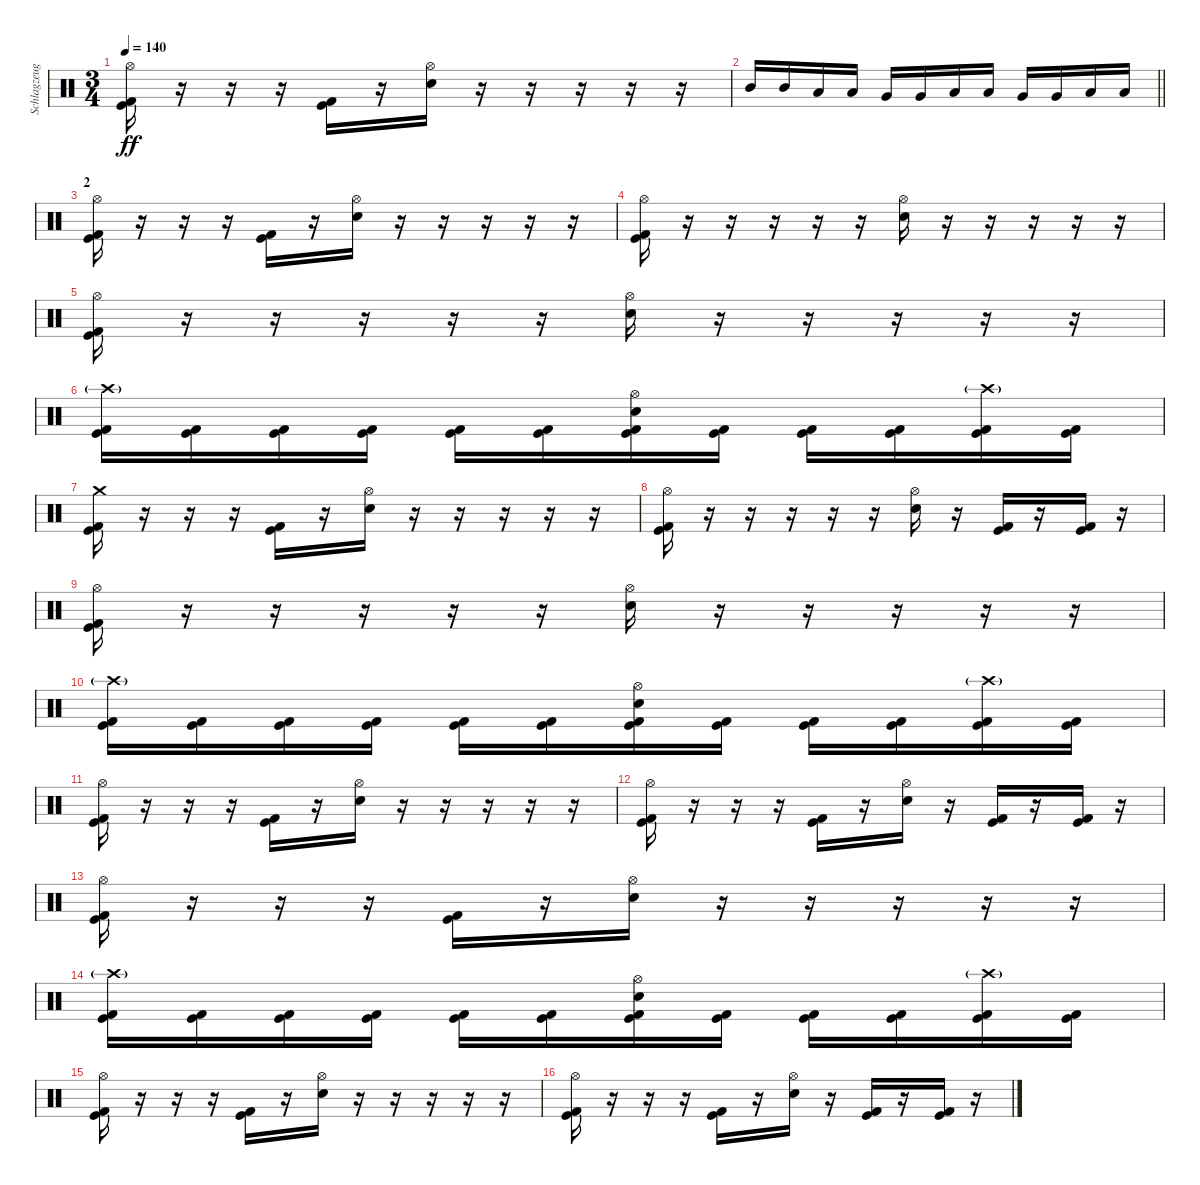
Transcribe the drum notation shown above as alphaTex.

\track ("Schlagzeug" "Schlagzeug") {instrument percussion}
\staff {score}
\articulation defaults
\ts (3 4)
\tempo 140
\clef neutral
\ks c
("Hi-Hat (open)" "Kick (hit)" "Kick (hit) 2").16{dy ff} r.16 r.16 r.16 ("Kick (hit)" "Kick (hit) 2").16 r.16 ("Hi-Hat (open)" "Electric Snare (hit)").16 r.16 r.16 r.16 r.16 r.16 |
\barLineRight lightlight "Mid Tom (hit)".16 "Mid Tom (hit)".16 "Low Tom (hit)".16 "Low Tom (hit)".16 "Very Low Tom (hit)".16 "Very Low Tom (hit)".16 "Low Tom (hit)".16 "Low Tom (hit)".16 "Very Low Tom (hit)".16 "Very Low Tom (hit)".16 "Low Floor Tom (hit)".16 "Low Floor Tom (hit)".16
|
\section ("" "2")
("Hi-Hat (open)" "Kick (hit)" "Kick (hit) 2").16 r.16 r.16 r.16 ("Kick (hit)" "Kick (hit) 2").16 r.16 ("Hi-Hat (open)" "Electric Snare (hit)").16 r.16 r.16 r.16 r.16 r.16 |
("Hi-Hat (open)" "Kick (hit)" "Kick (hit) 2").16 r.16 r.16 r.16 r.16 r.16 ("Hi-Hat (open)" "Electric Snare (hit)").16 r.16 r.16 r.16 r.16 r.16 |
("Hi-Hat (open)" "Kick (hit)" "Kick (hit) 2").16 r.16 r.16 r.16 r.16 r.16 ("Hi-Hat (open)" "Electric Snare (hit)").16 r.16 r.16 r.16 r.16 r.16 |
("Crash high (hit)"{g} "Kick (hit)" "Kick (hit) 2").16 ("Kick (hit)" "Kick (hit) 2").16 ("Kick (hit)" "Kick (hit) 2").16 ("Kick (hit)" "Kick (hit) 2").16 ("Kick (hit)" "Kick (hit) 2").16 ("Kick (hit)" "Kick (hit) 2").16 ("Hi-Hat (open)" "Kick (hit)" "Kick (hit) 2" "Electric Snare (hit)").16 ("Kick (hit)" "Kick (hit) 2").16 ("Kick (hit)" "Kick (hit) 2").16 ("Kick (hit)" "Kick (hit) 2").16 ("Crash high (hit)"{g} "Kick (hit)" "Kick (hit) 2").16 ("Kick (hit)" "Kick (hit) 2").16 |
("Crash medium (hit)" "Kick (hit)" "Kick (hit) 2").16 r.16 r.16 r.16 ("Kick (hit)" "Kick (hit) 2").16 r.16 ("Hi-Hat (open)" "Electric Snare (hit)").16 r.16 r.16 r.16 r.16 r.16 |
("Hi-Hat (open)" "Kick (hit)" "Kick (hit) 2").16 r.16 r.16 r.16 r.16 r.16 ("Hi-Hat (open)" "Electric Snare (hit)").16 r.16 ("Kick (hit)" "Kick (hit) 2").16 r.16 ("Kick (hit)" "Kick (hit) 2").16 r.16 |
("Hi-Hat (open)" "Kick (hit)" "Kick (hit) 2").16 r.16 r.16 r.16 r.16 r.16 ("Hi-Hat (open)" "Electric Snare (hit)").16 r.16 r.16 r.16 r.16 r.16 |
("Crash high (hit)"{g} "Kick (hit)" "Kick (hit) 2").16 ("Kick (hit)" "Kick (hit) 2").16 ("Kick (hit)" "Kick (hit) 2").16 ("Kick (hit)" "Kick (hit) 2").16 ("Kick (hit)" "Kick (hit) 2").16 ("Kick (hit)" "Kick (hit) 2").16 ("Hi-Hat (open)" "Kick (hit)" "Kick (hit) 2" "Electric Snare (hit)").16 ("Kick (hit)" "Kick (hit) 2").16 ("Kick (hit)" "Kick (hit) 2").16 ("Kick (hit)" "Kick (hit) 2").16 ("Crash high (hit)"{g} "Kick (hit)" "Kick (hit) 2").16 ("Kick (hit)" "Kick (hit) 2").16 |
("Hi-Hat (open)" "Kick (hit)" "Kick (hit) 2").16 r.16 r.16 r.16 ("Kick (hit)" "Kick (hit) 2").16 r.16 ("Hi-Hat (open)" "Electric Snare (hit)").16 r.16 r.16 r.16 r.16 r.16 |
("Hi-Hat (open)" "Kick (hit)" "Kick (hit) 2").16 r.16 r.16 r.16 ("Kick (hit)" "Kick (hit) 2").16 r.16 ("Hi-Hat (open)" "Electric Snare (hit)").16 r.16 ("Kick (hit)" "Kick (hit) 2").16 r.16 ("Kick (hit)" "Kick (hit) 2").16 r.16 |
("Hi-Hat (open)" "Kick (hit)" "Kick (hit) 2").16 r.16 r.16 r.16 ("Kick (hit)" "Kick (hit) 2").16 r.16 ("Hi-Hat (open)" "Electric Snare (hit)").16 r.16 r.16 r.16 r.16 r.16 |
("Crash high (hit)"{g} "Kick (hit)" "Kick (hit) 2").16 ("Kick (hit)" "Kick (hit) 2").16 ("Kick (hit)" "Kick (hit) 2").16 ("Kick (hit)" "Kick (hit) 2").16 ("Kick (hit)" "Kick (hit) 2").16 ("Kick (hit)" "Kick (hit) 2").16 ("Hi-Hat (open)" "Kick (hit)" "Kick (hit) 2" "Electric Snare (hit)").16 ("Kick (hit)" "Kick (hit) 2").16 ("Kick (hit)" "Kick (hit) 2").16 ("Kick (hit)" "Kick (hit) 2").16 ("Crash high (hit)"{g} "Kick (hit)" "Kick (hit) 2").16 ("Kick (hit)" "Kick (hit) 2").16 |
("Hi-Hat (open)" "Kick (hit)" "Kick (hit) 2").16 r.16 r.16 r.16 ("Kick (hit)" "Kick (hit) 2").16 r.16 ("Hi-Hat (open)" "Electric Snare (hit)").16 r.16 r.16 r.16 r.16 r.16 |
("Hi-Hat (open)" "Kick (hit)" "Kick (hit) 2").16 r.16 r.16 r.16 ("Kick (hit)" "Kick (hit) 2").16 r.16 ("Hi-Hat (open)" "Electric Snare (hit)").16 r.16 ("Kick (hit)" "Kick (hit) 2").16 r.16 ("Kick (hit)" "Kick (hit) 2").16 r.16
